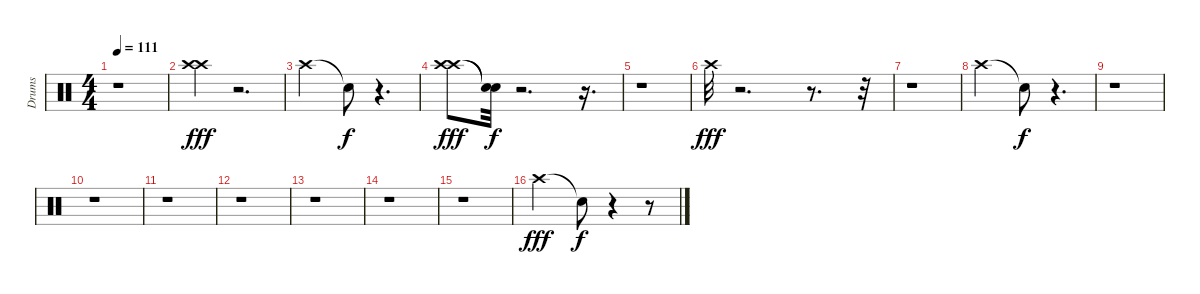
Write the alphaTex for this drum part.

\track ("Drums" "Drums") {instrument percussion}
\staff {score}
\articulation defaults
\ts (4 4)
\tempo 111
\clef neutral
\ks c
r.1{dy f} |
("Crash high (hit)" "Crash high (hit)").4{dy fff} r.2{d} |
"Crash high (hit)".2 "Snare (hit)"{t}.8{dy f} r.4{d} |
("Crash high (hit)" "Crash high (hit)").8{dy fff} ("Snare (hit)"{t} "Snare (hit)"{t}).32{dy f} r.2{d} r.16{d} |
r.1 |
"Crash high (hit)".32{dy fff} r.2{d} r.8{d} r.32 |
r.1 |
"Crash high (hit)".2 "Snare (hit)"{t}.8{dy f} r.4{d} |
r.1 |
r.1 |
r.1 |
r.1 |
r.1 |
r.1 |
r.1 |
"Crash high (hit)".2{dy fff} "Snare (hit)"{t}.8{dy f} r.4 r.8
